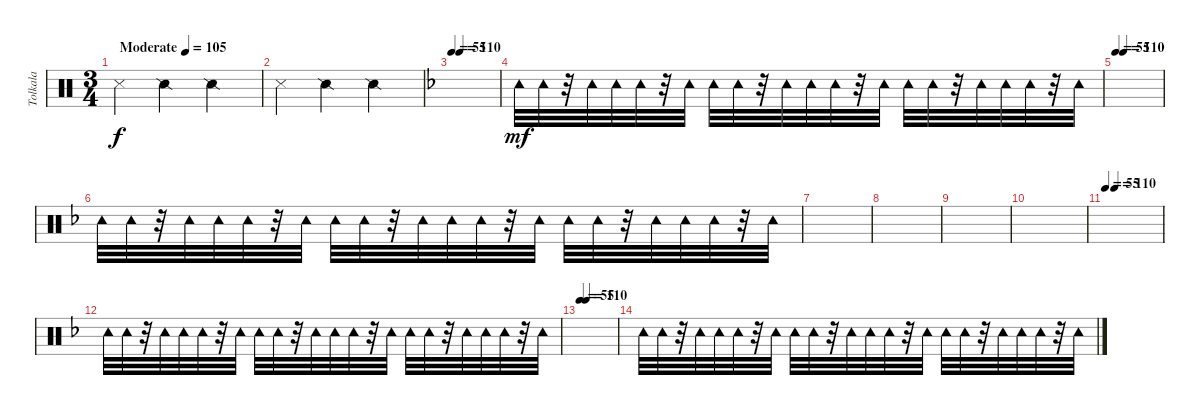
\track ("Tolkala" "Tolkala") {instrument percussion}
\staff {score}
\articulation defaults
\ts (3 4)
\tempo (105 "Moderate")
\clef neutral
\ks c "Snare (side stick) 3".4{dy f} "Snare (side stick) 2".4 "Snare (side stick) 2".4
|
"Snare (side stick) 3".4 "Snare (side stick) 2".4 "Snare (side stick) 2".4 |
\tempo 55
\tempo (110 0.16666666666666666)
\ks f
|
"Tambourine (hit)".32{dy mf} "Tambourine (hit)".32 r.32 "Tambourine (hit)".32 "Tambourine (hit)".32 "Tambourine (hit)".32 r.32 "Tambourine (hit)".32 "Tambourine (hit)".32 "Tambourine (hit)".32 r.32 "Tambourine (hit)".32 "Tambourine (hit)".32 "Tambourine (hit)".32 r.32 "Tambourine (hit)".32 "Tambourine (hit)".32 "Tambourine (hit)".32 r.32 "Tambourine (hit)".32 "Tambourine (hit)".32 "Tambourine (hit)".32 r.32 "Tambourine (hit)".32 |
\tempo 55
\tempo (110 0.16666666666666666)
|
"Tambourine (hit)".32 "Tambourine (hit)".32 r.32 "Tambourine (hit)".32 "Tambourine (hit)".32 "Tambourine (hit)".32 r.32 "Tambourine (hit)".32 "Tambourine (hit)".32 "Tambourine (hit)".32 r.32 "Tambourine (hit)".32 "Tambourine (hit)".32 "Tambourine (hit)".32 r.32 "Tambourine (hit)".32 "Tambourine (hit)".32 "Tambourine (hit)".32 r.32 "Tambourine (hit)".32 "Tambourine (hit)".32 "Tambourine (hit)".32 r.32 "Tambourine (hit)".32 |
|
|
|
|
\tempo 55
\tempo (110 0.16666666666666666)
|
"Tambourine (hit)".32 "Tambourine (hit)".32 r.32 "Tambourine (hit)".32 "Tambourine (hit)".32 "Tambourine (hit)".32 r.32 "Tambourine (hit)".32 "Tambourine (hit)".32 "Tambourine (hit)".32 r.32 "Tambourine (hit)".32 "Tambourine (hit)".32 "Tambourine (hit)".32 r.32 "Tambourine (hit)".32 "Tambourine (hit)".32 "Tambourine (hit)".32 r.32 "Tambourine (hit)".32 "Tambourine (hit)".32 "Tambourine (hit)".32 r.32 "Tambourine (hit)".32 |
\tempo 55
\tempo (110 0.16666666666666666)
|
"Tambourine (hit)".32 "Tambourine (hit)".32 r.32 "Tambourine (hit)".32 "Tambourine (hit)".32 "Tambourine (hit)".32 r.32 "Tambourine (hit)".32 "Tambourine (hit)".32 "Tambourine (hit)".32 r.32 "Tambourine (hit)".32 "Tambourine (hit)".32 "Tambourine (hit)".32 r.32 "Tambourine (hit)".32 "Tambourine (hit)".32 "Tambourine (hit)".32 r.32 "Tambourine (hit)".32 "Tambourine (hit)".32 "Tambourine (hit)".32 r.32 "Tambourine (hit)".32
